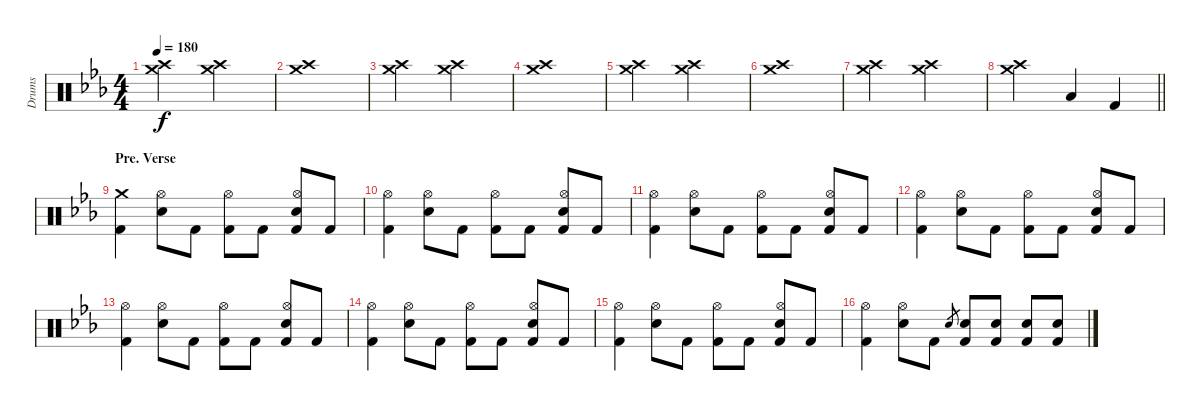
\track ("Drums" "Drums") {instrument percussion}
\staff {score}
\articulation defaults
\ts (4 4)
\tempo 180
\clef neutral
\ks eb
("Crash medium (hit)" "Crash high (hit)").2{dy f} ("Crash medium (hit)" "Crash high (hit)").2 |
("Crash medium (hit)" "Crash high (hit)").1 |
("Crash medium (hit)" "Crash high (hit)").2 ("Crash medium (hit)" "Crash high (hit)").2 |
("Crash medium (hit)" "Crash high (hit)").1 |
("Crash medium (hit)" "Crash high (hit)").2 ("Crash medium (hit)" "Crash high (hit)").2 |
("Crash medium (hit)" "Crash high (hit)").1 |
("Crash medium (hit)" "Crash high (hit)").2 ("Crash medium (hit)" "Crash high (hit)").2 |
\barLineRight lightlight
("Crash medium (hit)" "Crash high (hit)").2 "Low Tom (hit)".4 "Kick (hit) 2".4 |
\section ("" "Pre. Verse")
("Crash medium (hit)" "Kick (hit) 2").4 ("Hi-Hat (open)" "Snare (hit) 2").8 "Kick (hit) 2".8 ("Hi-Hat (open)" "Kick (hit) 2").8 "Kick (hit) 2".8 ("Hi-Hat (open)" "Snare (hit) 2" "Kick (hit) 2").8 "Kick (hit) 2".8 |
("Hi-Hat (open)" "Kick (hit) 2").4 ("Hi-Hat (open)" "Snare (hit) 2").8 "Kick (hit) 2".8 ("Hi-Hat (open)" "Kick (hit) 2").8 "Kick (hit) 2".8 ("Hi-Hat (open)" "Snare (hit) 2" "Kick (hit) 2").8 "Kick (hit) 2".8 |
("Hi-Hat (open)" "Kick (hit) 2").4 ("Hi-Hat (open)" "Snare (hit) 2").8 "Kick (hit) 2".8 ("Hi-Hat (open)" "Kick (hit) 2").8 "Kick (hit) 2".8 ("Hi-Hat (open)" "Snare (hit) 2" "Kick (hit) 2").8 "Kick (hit) 2".8 |
("Hi-Hat (open)" "Kick (hit) 2").4 ("Hi-Hat (open)" "Snare (hit) 2").8 "Kick (hit) 2".8 ("Hi-Hat (open)" "Kick (hit) 2").8 "Kick (hit) 2".8 ("Hi-Hat (open)" "Snare (hit) 2" "Kick (hit) 2").8 "Kick (hit) 2".8 |
("Hi-Hat (open)" "Kick (hit) 2").4 ("Hi-Hat (open)" "Snare (hit) 2").8 "Kick (hit) 2".8 ("Hi-Hat (open)" "Kick (hit) 2").8 "Kick (hit) 2".8 ("Hi-Hat (open)" "Snare (hit) 2" "Kick (hit) 2").8 "Kick (hit) 2".8 |
("Hi-Hat (open)" "Kick (hit) 2").4 ("Hi-Hat (open)" "Snare (hit) 2").8 "Kick (hit) 2".8 ("Hi-Hat (open)" "Kick (hit) 2").8 "Kick (hit) 2".8 ("Hi-Hat (open)" "Snare (hit) 2" "Kick (hit) 2").8 "Kick (hit) 2".8 |
("Hi-Hat (open)" "Kick (hit) 2").4 ("Hi-Hat (open)" "Snare (hit) 2").8 "Kick (hit) 2".8 ("Hi-Hat (open)" "Kick (hit) 2").8 "Kick (hit) 2".8 ("Hi-Hat (open)" "Snare (hit) 2" "Kick (hit) 2").8 "Kick (hit) 2".8 |
("Hi-Hat (open)" "Kick (hit) 2").4 ("Hi-Hat (open)" "Snare (hit) 2").8 "Kick (hit) 2".8 "Snare (hit) 2".8{gr} ("Snare (hit) 2" "Kick (hit) 2").8 ("Snare (hit) 2" "Kick (hit) 2").8 ("Snare (hit) 2" "Kick (hit) 2").8 ("Snare (hit) 2" "Kick (hit) 2").8
